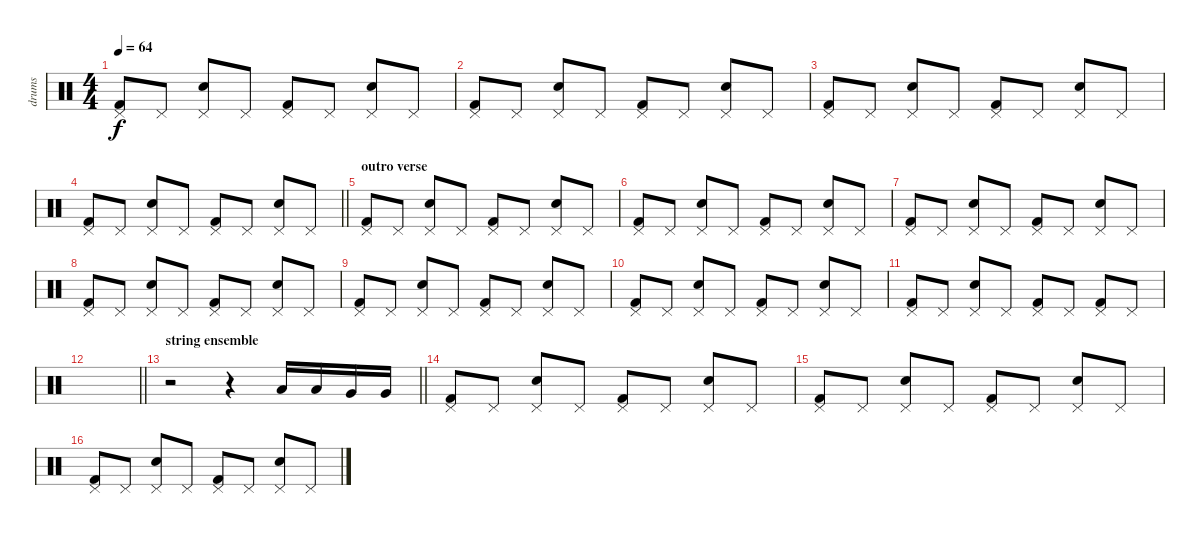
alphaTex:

\track ("drums" "drums") {instrument percussion}
\staff {score}
\articulation defaults
\ts (4 4)
\tempo 64
\clef neutral
\ks c
("Kick (hit) 2" "Pedal Hi-Hat (hit)").8{dy f} "Pedal Hi-Hat (hit)".8 ("Electric Snare (hit)" "Pedal Hi-Hat (hit)").8 "Pedal Hi-Hat (hit)".8 ("Kick (hit) 2" "Pedal Hi-Hat (hit)").8 "Pedal Hi-Hat (hit)".8 ("Electric Snare (hit)" "Pedal Hi-Hat (hit)").8 "Pedal Hi-Hat (hit)".8 |
("Kick (hit) 2" "Pedal Hi-Hat (hit)").8 "Pedal Hi-Hat (hit)".8 ("Electric Snare (hit)" "Pedal Hi-Hat (hit)").8 "Pedal Hi-Hat (hit)".8 ("Kick (hit) 2" "Pedal Hi-Hat (hit)").8 "Pedal Hi-Hat (hit)".8 ("Electric Snare (hit)" "Pedal Hi-Hat (hit)").8 "Pedal Hi-Hat (hit)".8 |
("Kick (hit) 2" "Pedal Hi-Hat (hit)").8 "Pedal Hi-Hat (hit)".8 ("Electric Snare (hit)" "Pedal Hi-Hat (hit)").8 "Pedal Hi-Hat (hit)".8 ("Kick (hit) 2" "Pedal Hi-Hat (hit)").8 "Pedal Hi-Hat (hit)".8 ("Electric Snare (hit)" "Pedal Hi-Hat (hit)").8 "Pedal Hi-Hat (hit)".8 |
\barLineRight lightlight
("Kick (hit) 2" "Pedal Hi-Hat (hit)").8 "Pedal Hi-Hat (hit)".8 ("Electric Snare (hit)" "Pedal Hi-Hat (hit)").8 "Pedal Hi-Hat (hit)".8 ("Kick (hit) 2" "Pedal Hi-Hat (hit)").8 "Pedal Hi-Hat (hit)".8 ("Electric Snare (hit)" "Pedal Hi-Hat (hit)").8 "Pedal Hi-Hat (hit)".8 |
\section ("" "outro verse ")
("Kick (hit) 2" "Pedal Hi-Hat (hit)").8 "Pedal Hi-Hat (hit)".8 ("Electric Snare (hit)" "Pedal Hi-Hat (hit)").8 "Pedal Hi-Hat (hit)".8 ("Kick (hit) 2" "Pedal Hi-Hat (hit)").8 "Pedal Hi-Hat (hit)".8 ("Electric Snare (hit)" "Pedal Hi-Hat (hit)").8 "Pedal Hi-Hat (hit)".8 |
("Kick (hit) 2" "Pedal Hi-Hat (hit)").8 "Pedal Hi-Hat (hit)".8 ("Electric Snare (hit)" "Pedal Hi-Hat (hit)").8 "Pedal Hi-Hat (hit)".8 ("Kick (hit) 2" "Pedal Hi-Hat (hit)").8 "Pedal Hi-Hat (hit)".8 ("Electric Snare (hit)" "Pedal Hi-Hat (hit)").8 "Pedal Hi-Hat (hit)".8 |
("Kick (hit) 2" "Pedal Hi-Hat (hit)").8 "Pedal Hi-Hat (hit)".8 ("Electric Snare (hit)" "Pedal Hi-Hat (hit)").8 "Pedal Hi-Hat (hit)".8 ("Kick (hit) 2" "Pedal Hi-Hat (hit)").8 "Pedal Hi-Hat (hit)".8 ("Electric Snare (hit)" "Pedal Hi-Hat (hit)").8 "Pedal Hi-Hat (hit)".8 |
("Kick (hit) 2" "Pedal Hi-Hat (hit)").8 "Pedal Hi-Hat (hit)".8 ("Electric Snare (hit)" "Pedal Hi-Hat (hit)").8 "Pedal Hi-Hat (hit)".8 ("Kick (hit) 2" "Pedal Hi-Hat (hit)").8 "Pedal Hi-Hat (hit)".8 ("Electric Snare (hit)" "Pedal Hi-Hat (hit)").8 "Pedal Hi-Hat (hit)".8 |
("Kick (hit) 2" "Pedal Hi-Hat (hit)").8 "Pedal Hi-Hat (hit)".8 ("Electric Snare (hit)" "Pedal Hi-Hat (hit)").8 "Pedal Hi-Hat (hit)".8 ("Kick (hit) 2" "Pedal Hi-Hat (hit)").8 "Pedal Hi-Hat (hit)".8 ("Electric Snare (hit)" "Pedal Hi-Hat (hit)").8 "Pedal Hi-Hat (hit)".8 |
("Kick (hit) 2" "Pedal Hi-Hat (hit)").8 "Pedal Hi-Hat (hit)".8 ("Electric Snare (hit)" "Pedal Hi-Hat (hit)").8 "Pedal Hi-Hat (hit)".8 ("Kick (hit) 2" "Pedal Hi-Hat (hit)").8 "Pedal Hi-Hat (hit)".8 ("Electric Snare (hit)" "Pedal Hi-Hat (hit)").8 "Pedal Hi-Hat (hit)".8 |
("Kick (hit) 2" "Pedal Hi-Hat (hit)").8 "Pedal Hi-Hat (hit)".8 ("Electric Snare (hit)" "Pedal Hi-Hat (hit)").8 "Pedal Hi-Hat (hit)".8 ("Kick (hit) 2" "Pedal Hi-Hat (hit)").8 "Pedal Hi-Hat (hit)".8 ("Kick (hit) 2" "Pedal Hi-Hat (hit)").8 "Pedal Hi-Hat (hit)".8 |
\barLineRight lightlight
|
\section ("" "string ensemble")
\barLineRight lightlight
r.2 r.4 "Low Tom (hit)".16 "Low Tom (hit)".16 "Very Low Tom (hit)".16 "Very Low Tom (hit)".16 |
("Kick (hit) 2" "Pedal Hi-Hat (hit)").8 "Pedal Hi-Hat (hit)".8 ("Electric Snare (hit)" "Pedal Hi-Hat (hit)").8 "Pedal Hi-Hat (hit)".8 ("Kick (hit) 2" "Pedal Hi-Hat (hit)").8 "Pedal Hi-Hat (hit)".8 ("Electric Snare (hit)" "Pedal Hi-Hat (hit)").8 "Pedal Hi-Hat (hit)".8 |
("Kick (hit) 2" "Pedal Hi-Hat (hit)").8 "Pedal Hi-Hat (hit)".8 ("Electric Snare (hit)" "Pedal Hi-Hat (hit)").8 "Pedal Hi-Hat (hit)".8 ("Kick (hit) 2" "Pedal Hi-Hat (hit)").8 "Pedal Hi-Hat (hit)".8 ("Electric Snare (hit)" "Pedal Hi-Hat (hit)").8 "Pedal Hi-Hat (hit)".8 |
("Kick (hit) 2" "Pedal Hi-Hat (hit)").8 "Pedal Hi-Hat (hit)".8 ("Electric Snare (hit)" "Pedal Hi-Hat (hit)").8 "Pedal Hi-Hat (hit)".8 ("Kick (hit) 2" "Pedal Hi-Hat (hit)").8 "Pedal Hi-Hat (hit)".8 ("Electric Snare (hit)" "Pedal Hi-Hat (hit)").8 "Pedal Hi-Hat (hit)".8
